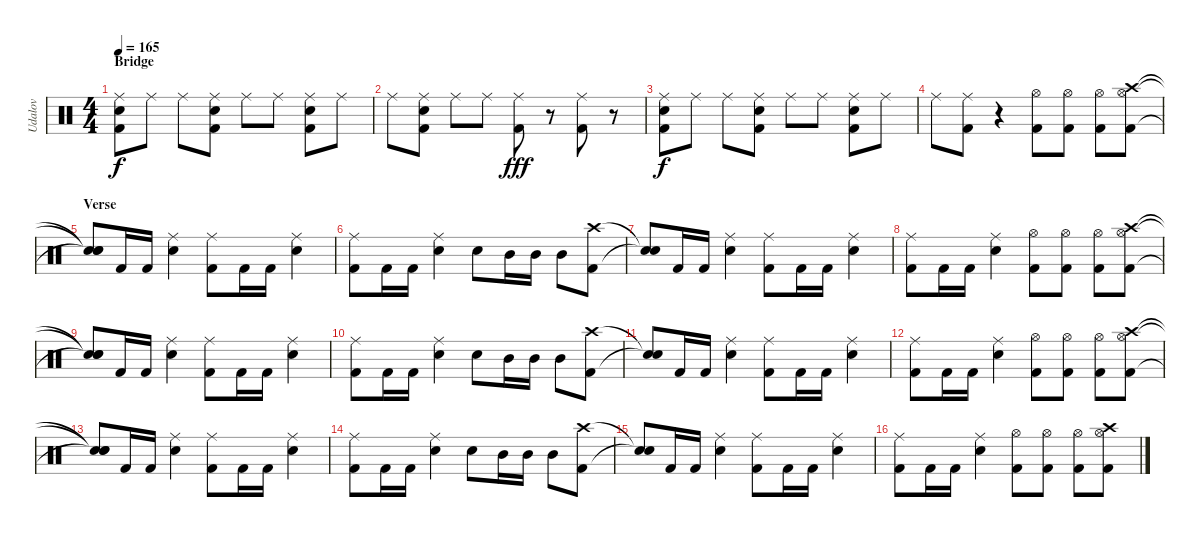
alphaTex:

\track ("Udalov" "Udalov") {instrument percussion}
\staff {score}
\articulation defaults
\ts (4 4)
\section ("" "Bridge")
\tempo 165
\clef neutral
\ks c
("Kick (hit) 2" "Electric Snare (hit)" "Ride (middle)").8{dy f} "Ride (middle)".8 "Ride (middle)".8 ("Kick (hit) 2" "Electric Snare (hit)" "Ride (middle)").8 "Ride (middle)".8 "Ride (middle)".8 ("Kick (hit) 2" "Electric Snare (hit)" "Ride (middle)").8 "Ride (middle)".8 |
"Ride (middle)".8 ("Electric Snare (hit)" "Kick (hit) 2" "Ride (middle)").8 "Ride (middle)".8 "Ride (middle)".8 ("Ride (middle)" "Kick (hit) 2").8{dy fff} r.8 ("Ride (middle)" "Kick (hit) 2").8 r.8 |
("Kick (hit) 2" "Electric Snare (hit)" "Ride (middle)").8{dy f} "Ride (middle)".8 "Ride (middle)".8 ("Kick (hit) 2" "Electric Snare (hit)" "Ride (middle)").8 "Ride (middle)".8 "Ride (middle)".8 ("Kick (hit) 2" "Electric Snare (hit)" "Ride (middle)").8 "Ride (middle)".8 |
"Ride (middle)".8 ("Kick (hit) 2" "Ride (middle)").8 r.4 ("Kick (hit) 2" "Hi-Hat (open)").8 ("Kick (hit) 2" "Hi-Hat (open)").8 ("Kick (hit) 2" "Hi-Hat (open)").8 ("Kick (hit) 2" "Hi-Hat (open)" "Crash high (hit)").8 |
\section ("" "Verse")
("Snare (hit)"{t} "Snare (hit)"{t} "Snare (hit)"{t}).8 "Kick (hit) 2".16 "Kick (hit) 2".16 ("Snare (hit) 2" "Ride (middle)").4 ("Kick (hit) 2" "Ride (middle)").8 "Kick (hit) 2".16 "Kick (hit) 2".16 ("Snare (hit) 2" "Ride (middle)").4 |
("Kick (hit) 2" "Ride (middle)").8 "Kick (hit) 2".16 "Kick (hit) 2".16 ("Snare (hit) 2" "Ride (middle)").4 "Snare (hit) 2".8 "Mid Tom (hit)".16 "Mid Tom (hit)".16 "Mid Tom (hit)".8 ("Kick (hit) 2" "Crash high (hit)").8 |
("Snare (hit)"{t} "Snare (hit)"{t}).8 "Kick (hit) 2".16 "Kick (hit) 2".16 ("Snare (hit) 2" "Ride (middle)").4 ("Kick (hit) 2" "Ride (middle)").8 "Kick (hit) 2".16 "Kick (hit) 2".16 ("Snare (hit) 2" "Ride (middle)").4 |
("Kick (hit) 2" "Ride (middle)").8 "Kick (hit) 2".16 "Kick (hit) 2".16 ("Snare (hit) 2" "Ride (middle)").4 ("Kick (hit) 2" "Hi-Hat (open)").8 ("Kick (hit) 2" "Hi-Hat (open)").8 ("Kick (hit) 2" "Hi-Hat (open)").8 ("Kick (hit) 2" "Hi-Hat (open)" "Crash high (hit)").8 |
("Snare (hit)"{t} "Snare (hit)"{t} "Snare (hit)"{t}).8 "Kick (hit) 2".16 "Kick (hit) 2".16 ("Snare (hit) 2" "Ride (middle)").4 ("Kick (hit) 2" "Ride (middle)").8 "Kick (hit) 2".16 "Kick (hit) 2".16 ("Snare (hit) 2" "Ride (middle)").4 |
("Kick (hit) 2" "Ride (middle)").8 "Kick (hit) 2".16 "Kick (hit) 2".16 ("Snare (hit) 2" "Ride (middle)").4 "Snare (hit) 2".8 "Mid Tom (hit)".16 "Mid Tom (hit)".16 "Mid Tom (hit)".8 ("Kick (hit) 2" "Crash high (hit)").8 |
("Snare (hit)"{t} "Snare (hit)"{t}).8 "Kick (hit) 2".16 "Kick (hit) 2".16 ("Snare (hit) 2" "Ride (middle)").4 ("Kick (hit) 2" "Ride (middle)").8 "Kick (hit) 2".16 "Kick (hit) 2".16 ("Snare (hit) 2" "Ride (middle)").4 |
("Kick (hit) 2" "Ride (middle)").8 "Kick (hit) 2".16 "Kick (hit) 2".16 ("Snare (hit) 2" "Ride (middle)").4 ("Kick (hit) 2" "Hi-Hat (open)").8 ("Kick (hit) 2" "Hi-Hat (open)").8 ("Kick (hit) 2" "Hi-Hat (open)").8 ("Kick (hit) 2" "Hi-Hat (open)" "Crash high (hit)").8 |
("Snare (hit)"{t} "Snare (hit)"{t} "Snare (hit)"{t}).8 "Kick (hit) 2".16 "Kick (hit) 2".16 ("Snare (hit) 2" "Ride (middle)").4 ("Kick (hit) 2" "Ride (middle)").8 "Kick (hit) 2".16 "Kick (hit) 2".16 ("Snare (hit) 2" "Ride (middle)").4 |
("Kick (hit) 2" "Ride (middle)").8 "Kick (hit) 2".16 "Kick (hit) 2".16 ("Snare (hit) 2" "Ride (middle)").4 "Snare (hit) 2".8 "Mid Tom (hit)".16 "Mid Tom (hit)".16 "Mid Tom (hit)".8 ("Kick (hit) 2" "Crash high (hit)").8 |
("Snare (hit)"{t} "Snare (hit)"{t}).8 "Kick (hit) 2".16 "Kick (hit) 2".16 ("Snare (hit) 2" "Ride (middle)").4 ("Kick (hit) 2" "Ride (middle)").8 "Kick (hit) 2".16 "Kick (hit) 2".16 ("Snare (hit) 2" "Ride (middle)").4 |
("Kick (hit) 2" "Ride (middle)").8 "Kick (hit) 2".16 "Kick (hit) 2".16 ("Snare (hit) 2" "Ride (middle)").4 ("Kick (hit) 2" "Hi-Hat (open)").8 ("Kick (hit) 2" "Hi-Hat (open)").8 ("Kick (hit) 2" "Hi-Hat (open)").8 ("Kick (hit) 2" "Hi-Hat (open)" "Crash high (hit)").8
